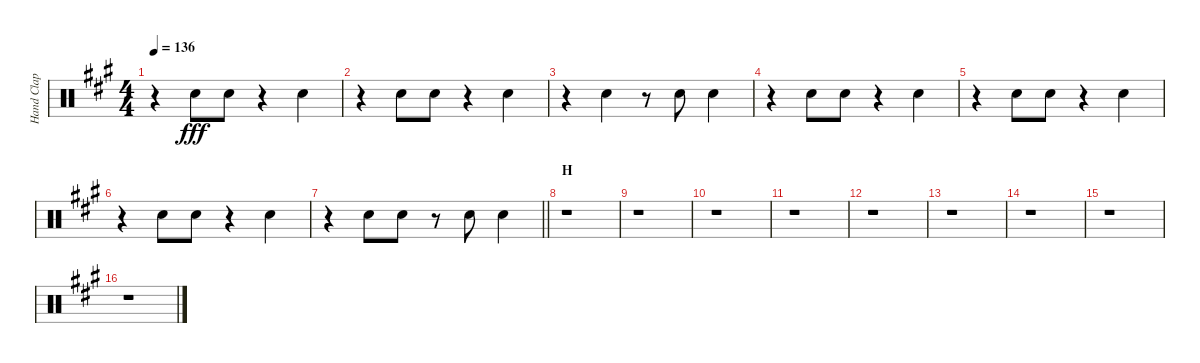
\track ("Hand Clap" "Hand Clap") {instrument percussion}
\staff {score}
\articulation defaults
\ts (4 4)
\tempo 136
\clef neutral
\ks a
r.4{dy fff} "Hand Clap (hit)".8 "Hand Clap (hit)".8 r.4 "Hand Clap (hit)".4 |
r.4 "Hand Clap (hit)".8 "Hand Clap (hit)".8 r.4 "Hand Clap (hit)".4 |
r.4 "Hand Clap (hit)".4 r.8 "Hand Clap (hit)".8 "Hand Clap (hit)".4 |
r.4 "Hand Clap (hit)".8 "Hand Clap (hit)".8 r.4 "Hand Clap (hit)".4 |
r.4 "Hand Clap (hit)".8 "Hand Clap (hit)".8 r.4 "Hand Clap (hit)".4 |
r.4 "Hand Clap (hit)".8 "Hand Clap (hit)".8 r.4 "Hand Clap (hit)".4 |
\barLineRight lightlight
r.4 "Hand Clap (hit)".8 "Hand Clap (hit)".8 r.8 "Hand Clap (hit)".8 "Hand Clap (hit)".4 |
\section ("" "H")
r.1 |
r.1 |
r.1 |
r.1 |
r.1 |
r.1 |
r.1 |
r.1 |
r.1
